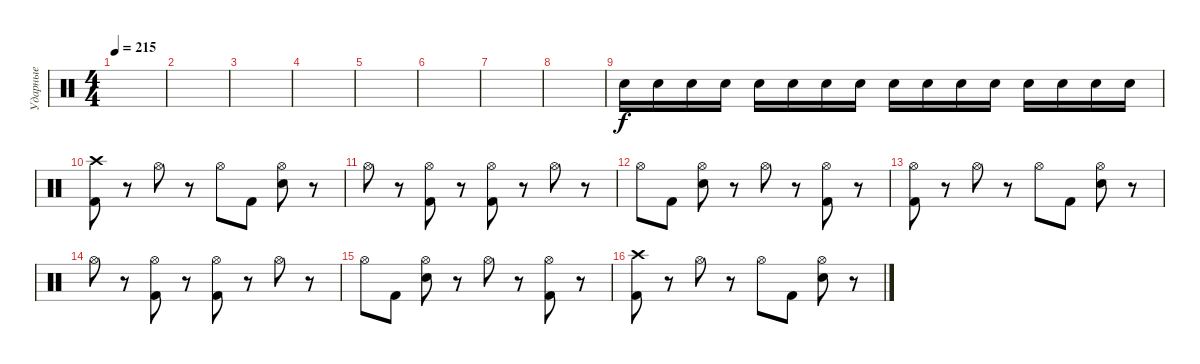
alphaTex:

\track ("Ударные" "Ударные") {instrument percussion}
\staff {score}
\articulation defaults
\ts (4 4)
\tempo 215
\clef neutral
\ks c
|
|
|
|
|
|
|
|
"Snare (hit) 2".16 "Snare (hit) 2".16 "Snare (hit) 2".16 "Snare (hit) 2".16 "Snare (hit) 2".16 "Snare (hit) 2".16 "Snare (hit) 2".16 "Snare (hit) 2".16 "Snare (hit) 2".16 "Snare (hit) 2".16 "Snare (hit) 2".16 "Snare (hit) 2".16 "Snare (hit) 2".16 "Snare (hit) 2".16 "Snare (hit) 2".16 "Snare (hit) 2".16 |
("Crash high (hit)" "Kick (hit) 2").8 r.8 "Hi-Hat (open)".8 r.8 "Hi-Hat (open)".8 "Kick (hit) 2".8 ("Hi-Hat (open)" "Snare (hit) 2").8 r.8 |
"Hi-Hat (open)".8 r.8 ("Hi-Hat (open)" "Kick (hit) 2").8 r.8 ("Hi-Hat (open)" "Kick (hit) 2").8 r.8 "Hi-Hat (open)".8 r.8 |
"Hi-Hat (open)".8 "Kick (hit) 2".8 ("Hi-Hat (open)" "Snare (hit) 2").8 r.8 "Hi-Hat (open)".8 r.8 ("Hi-Hat (open)" "Kick (hit) 2").8 r.8 |
("Hi-Hat (open)" "Kick (hit) 2").8 r.8 "Hi-Hat (open)".8 r.8 "Hi-Hat (open)".8 "Kick (hit) 2".8 ("Hi-Hat (open)" "Snare (hit) 2").8 r.8 |
"Hi-Hat (open)".8 r.8 ("Hi-Hat (open)" "Kick (hit) 2").8 r.8 ("Hi-Hat (open)" "Kick (hit) 2").8 r.8 "Hi-Hat (open)".8 r.8 |
"Hi-Hat (open)".8 "Kick (hit) 2".8 ("Hi-Hat (open)" "Snare (hit) 2").8 r.8 "Hi-Hat (open)".8 r.8 ("Hi-Hat (open)" "Kick (hit) 2").8 r.8 |
("Crash high (hit)" "Kick (hit) 2").8 r.8 "Hi-Hat (open)".8 r.8 "Hi-Hat (open)".8 "Kick (hit) 2".8 ("Hi-Hat (open)" "Snare (hit) 2").8 r.8
